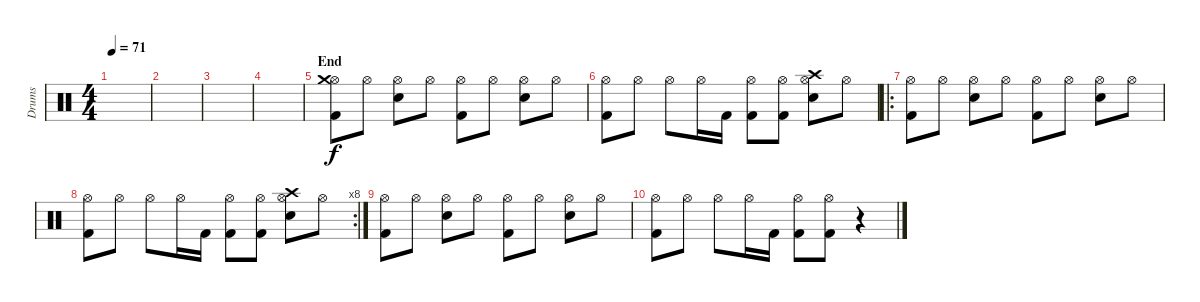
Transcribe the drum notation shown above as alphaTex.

\track ("Drums" "Drums") {instrument percussion}
\staff {score}
\articulation defaults
\ts (4 4)
\tempo 71
\clef neutral
\ks c
|
|
|
|
\section ("" "End")
("Hi-Hat (open)" "Crash medium (hit)" "Kick (hit) 2").8 "Hi-Hat (open)".8 ("Hi-Hat (open)" "Electric Snare (hit)").8 "Hi-Hat (open)".8 ("Hi-Hat (open)" "Kick (hit) 2").8 "Hi-Hat (open)".8 ("Hi-Hat (open)" "Electric Snare (hit)").8 "Hi-Hat (open)".8 |
("Hi-Hat (open)" "Kick (hit) 2").8 "Hi-Hat (open)".8 "Hi-Hat (open)".8 "Hi-Hat (open)".16 "Kick (hit) 2".16 ("Hi-Hat (open)" "Kick (hit) 2").8 ("Hi-Hat (open)" "Kick (hit) 2").8 ("Hi-Hat (open)" "Crash high (hit)" "Electric Snare (hit)").8 "Hi-Hat (open)".8 |
\ro
("Hi-Hat (open)" "Kick (hit) 2").8 "Hi-Hat (open)".8 ("Hi-Hat (open)" "Electric Snare (hit)").8 "Hi-Hat (open)".8 ("Hi-Hat (open)" "Kick (hit) 2").8 "Hi-Hat (open)".8 ("Hi-Hat (open)" "Electric Snare (hit)").8 "Hi-Hat (open)".8 |
\rc 8
("Hi-Hat (open)" "Kick (hit) 2").8 "Hi-Hat (open)".8 "Hi-Hat (open)".8 "Hi-Hat (open)".16 "Kick (hit) 2".16 ("Hi-Hat (open)" "Kick (hit) 2").8 ("Hi-Hat (open)" "Kick (hit) 2").8 ("Hi-Hat (open)" "Crash high (hit)" "Electric Snare (hit)").8 "Hi-Hat (open)".8 |
("Hi-Hat (open)" "Kick (hit) 2").8 "Hi-Hat (open)".8 ("Hi-Hat (open)" "Electric Snare (hit)").8 "Hi-Hat (open)".8 ("Hi-Hat (open)" "Kick (hit) 2").8 "Hi-Hat (open)".8 ("Hi-Hat (open)" "Electric Snare (hit)").8 "Hi-Hat (open)".8 |
("Hi-Hat (open)" "Kick (hit) 2").8 "Hi-Hat (open)".8 "Hi-Hat (open)".8 "Hi-Hat (open)".16 "Kick (hit) 2".16 ("Hi-Hat (open)" "Kick (hit) 2").8 ("Hi-Hat (open)" "Kick (hit) 2").8 r.4
